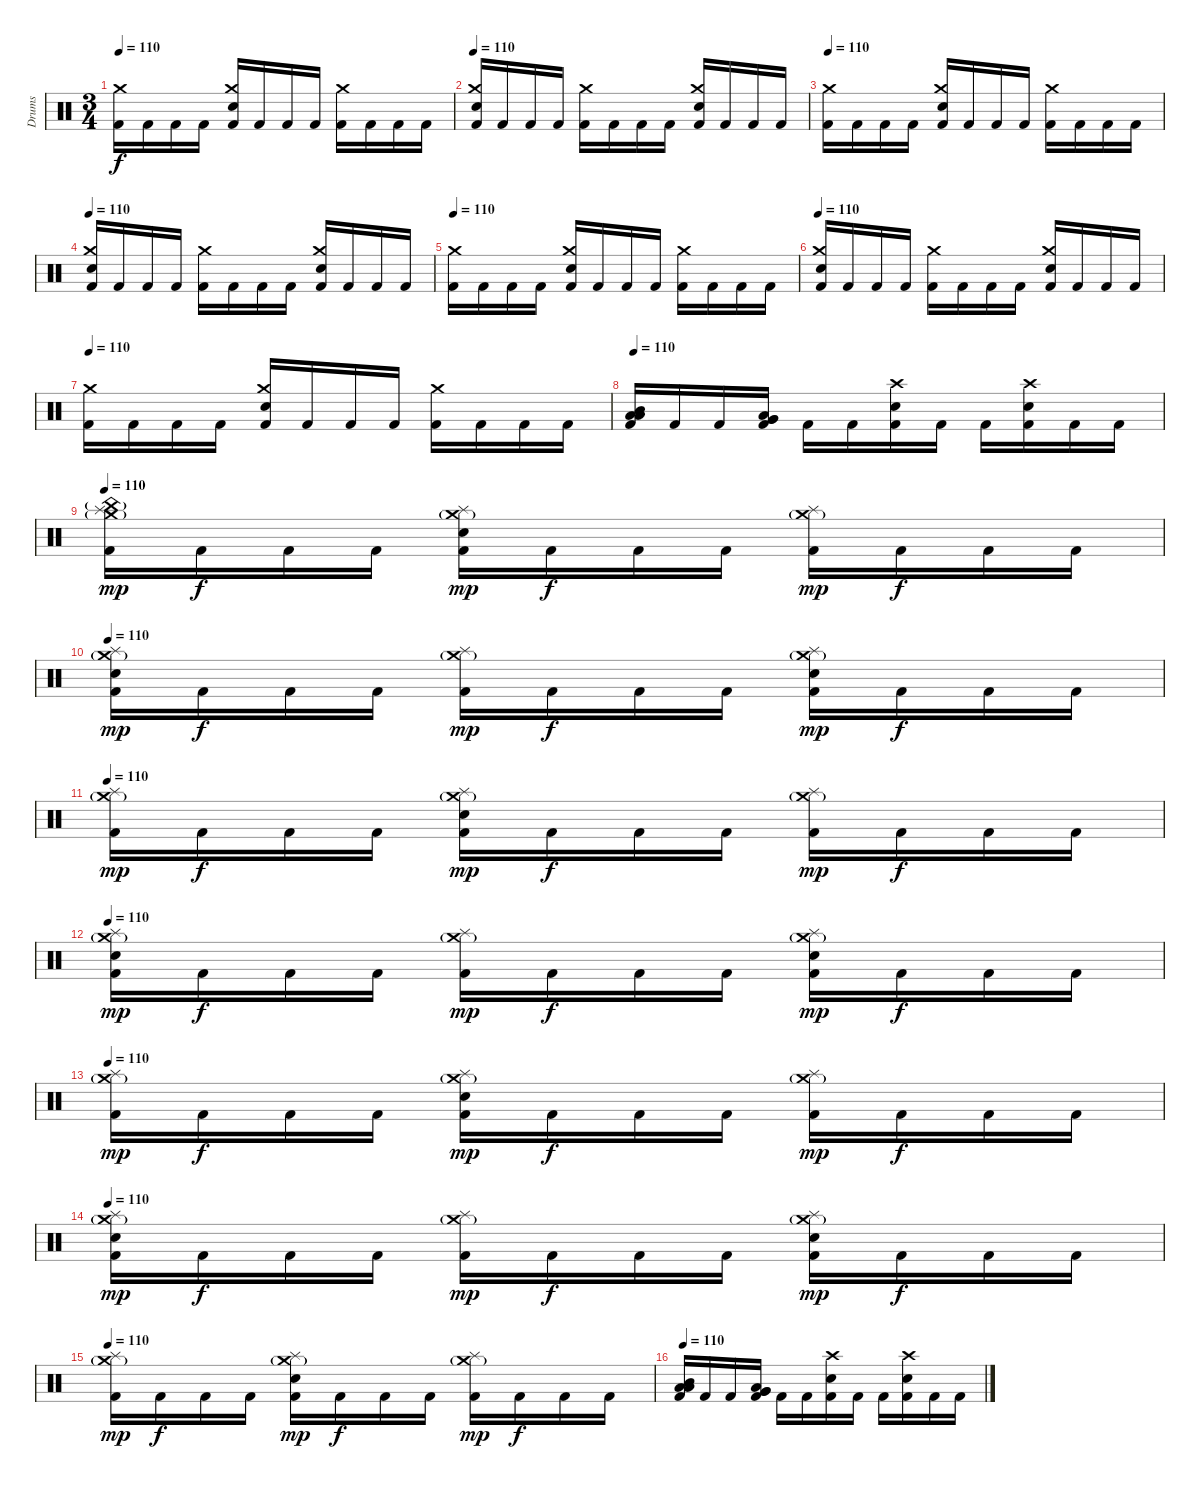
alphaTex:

\track ("Drums" "Drums") {instrument percussion}
\staff {score}
\articulation defaults
\ts (3 4)
\tempo 110
\clef neutral
\ks c
("Kick (hit) 2" "Crash medium (hit)").16{dy f} "Kick (hit) 2".16 "Kick (hit) 2".16 "Kick (hit) 2".16 ("Kick (hit) 2" "Electric Snare (hit)" "Crash medium (hit)").16 "Kick (hit) 2".16 "Kick (hit) 2".16 "Kick (hit) 2".16 ("Kick (hit) 2" "Crash medium (hit)").16 "Kick (hit) 2".16 "Kick (hit) 2".16 "Kick (hit) 2".16 |
\tempo 110
("Kick (hit) 2" "Electric Snare (hit)" "Crash medium (hit)").16 "Kick (hit) 2".16 "Kick (hit) 2".16 "Kick (hit) 2".16 ("Kick (hit) 2" "Crash medium (hit)").16 "Kick (hit) 2".16 "Kick (hit) 2".16 "Kick (hit) 2".16 ("Kick (hit) 2" "Electric Snare (hit)" "Crash medium (hit)").16 "Kick (hit) 2".16 "Kick (hit) 2".16 "Kick (hit) 2".16 |
\tempo 110
("Kick (hit) 2" "Crash medium (hit)").16 "Kick (hit) 2".16 "Kick (hit) 2".16 "Kick (hit) 2".16 ("Kick (hit) 2" "Electric Snare (hit)" "Crash medium (hit)").16 "Kick (hit) 2".16 "Kick (hit) 2".16 "Kick (hit) 2".16 ("Kick (hit) 2" "Crash medium (hit)").16 "Kick (hit) 2".16 "Kick (hit) 2".16 "Kick (hit) 2".16 |
\tempo 110
("Kick (hit) 2" "Electric Snare (hit)" "Crash medium (hit)").16 "Kick (hit) 2".16 "Kick (hit) 2".16 "Kick (hit) 2".16 ("Kick (hit) 2" "Crash medium (hit)").16 "Kick (hit) 2".16 "Kick (hit) 2".16 "Kick (hit) 2".16 ("Kick (hit) 2" "Electric Snare (hit)" "Crash medium (hit)").16 "Kick (hit) 2".16 "Kick (hit) 2".16 "Kick (hit) 2".16 |
\tempo 110
("Kick (hit) 2" "Crash medium (hit)").16 "Kick (hit) 2".16 "Kick (hit) 2".16 "Kick (hit) 2".16 ("Kick (hit) 2" "Electric Snare (hit)" "Crash medium (hit)").16 "Kick (hit) 2".16 "Kick (hit) 2".16 "Kick (hit) 2".16 ("Kick (hit) 2" "Crash medium (hit)").16 "Kick (hit) 2".16 "Kick (hit) 2".16 "Kick (hit) 2".16 |
\tempo 110
("Kick (hit) 2" "Electric Snare (hit)" "Crash medium (hit)").16 "Kick (hit) 2".16 "Kick (hit) 2".16 "Kick (hit) 2".16 ("Kick (hit) 2" "Crash medium (hit)").16 "Kick (hit) 2".16 "Kick (hit) 2".16 "Kick (hit) 2".16 ("Kick (hit) 2" "Electric Snare (hit)" "Crash medium (hit)").16 "Kick (hit) 2".16 "Kick (hit) 2".16 "Kick (hit) 2".16 |
\tempo 110
("Kick (hit) 2" "Crash medium (hit)").16 "Kick (hit) 2".16 "Kick (hit) 2".16 "Kick (hit) 2".16 ("Kick (hit) 2" "Electric Snare (hit)" "Crash medium (hit)").16 "Kick (hit) 2".16 "Kick (hit) 2".16 "Kick (hit) 2".16 ("Kick (hit) 2" "Crash medium (hit)").16 "Kick (hit) 2".16 "Kick (hit) 2".16 "Kick (hit) 2".16 |
\tempo 110
("Kick (hit) 2" "Mid Tom (hit)" "Low Tom (hit)" "Low Tom (hit)").16 "Kick (hit) 2".16 "Kick (hit) 2".16 ("Kick (hit) 2" "Low Tom (hit)" "Very Low Tom (hit)" "Very Low Tom (hit)").16 "Kick (hit) 2".16 "Kick (hit) 2".16 ("Kick (hit) 2" "Electric Snare (hit)" "Crash high (hit)").16 "Kick (hit) 2".16 "Kick (hit) 2".16 ("Kick (hit) 2" "Electric Snare (hit)" "Crash high (hit)").16 "Kick (hit) 2".16 "Kick (hit) 2".16 |
\tempo 110
("Kick (hit) 2" "Splash (hit)" "Crash medium (hit)"{g} "China (hit)"{g}).16{dy mp} "Kick (hit) 2".16{dy f} "Kick (hit) 2".16 "Kick (hit) 2".16 ("Kick (hit) 2" "Electric Snare (hit)" "Splash (hit)" "Crash medium (hit)"{g}).16{dy mp} "Kick (hit) 2".16{dy f} "Kick (hit) 2".16 "Kick (hit) 2".16 ("Kick (hit) 2" "Splash (hit)" "Crash medium (hit)"{g}).16{dy mp} "Kick (hit) 2".16{dy f} "Kick (hit) 2".16 "Kick (hit) 2".16 |
\tempo 110
("Kick (hit) 2" "Electric Snare (hit)" "Splash (hit)" "Crash medium (hit)"{g}).16{dy mp} "Kick (hit) 2".16{dy f} "Kick (hit) 2".16 "Kick (hit) 2".16 ("Kick (hit) 2" "Splash (hit)" "Crash medium (hit)"{g}).16{dy mp} "Kick (hit) 2".16{dy f} "Kick (hit) 2".16 "Kick (hit) 2".16 ("Kick (hit) 2" "Electric Snare (hit)" "Splash (hit)" "Crash medium (hit)"{g}).16{dy mp} "Kick (hit) 2".16{dy f} "Kick (hit) 2".16 "Kick (hit) 2".16 |
\tempo 110
("Kick (hit) 2" "Splash (hit)" "Crash medium (hit)"{g}).16{dy mp} "Kick (hit) 2".16{dy f} "Kick (hit) 2".16 "Kick (hit) 2".16 ("Kick (hit) 2" "Electric Snare (hit)" "Splash (hit)" "Crash medium (hit)"{g}).16{dy mp} "Kick (hit) 2".16{dy f} "Kick (hit) 2".16 "Kick (hit) 2".16 ("Kick (hit) 2" "Splash (hit)" "Crash medium (hit)"{g}).16{dy mp} "Kick (hit) 2".16{dy f} "Kick (hit) 2".16 "Kick (hit) 2".16 |
\tempo 110
("Kick (hit) 2" "Electric Snare (hit)" "Splash (hit)" "Crash medium (hit)"{g}).16{dy mp} "Kick (hit) 2".16{dy f} "Kick (hit) 2".16 "Kick (hit) 2".16 ("Kick (hit) 2" "Splash (hit)" "Crash medium (hit)"{g}).16{dy mp} "Kick (hit) 2".16{dy f} "Kick (hit) 2".16 "Kick (hit) 2".16 ("Kick (hit) 2" "Electric Snare (hit)" "Splash (hit)" "Crash medium (hit)"{g}).16{dy mp} "Kick (hit) 2".16{dy f} "Kick (hit) 2".16 "Kick (hit) 2".16 |
\tempo 110
("Kick (hit) 2" "Splash (hit)" "Crash medium (hit)"{g}).16{dy mp} "Kick (hit) 2".16{dy f} "Kick (hit) 2".16 "Kick (hit) 2".16 ("Kick (hit) 2" "Electric Snare (hit)" "Splash (hit)" "Crash medium (hit)"{g}).16{dy mp} "Kick (hit) 2".16{dy f} "Kick (hit) 2".16 "Kick (hit) 2".16 ("Kick (hit) 2" "Splash (hit)" "Crash medium (hit)"{g}).16{dy mp} "Kick (hit) 2".16{dy f} "Kick (hit) 2".16 "Kick (hit) 2".16 |
\tempo 110
("Kick (hit) 2" "Electric Snare (hit)" "Splash (hit)" "Crash medium (hit)"{g}).16{dy mp} "Kick (hit) 2".16{dy f} "Kick (hit) 2".16 "Kick (hit) 2".16 ("Kick (hit) 2" "Splash (hit)" "Crash medium (hit)"{g}).16{dy mp} "Kick (hit) 2".16{dy f} "Kick (hit) 2".16 "Kick (hit) 2".16 ("Kick (hit) 2" "Electric Snare (hit)" "Splash (hit)" "Crash medium (hit)"{g}).16{dy mp} "Kick (hit) 2".16{dy f} "Kick (hit) 2".16 "Kick (hit) 2".16 |
\tempo 110
("Kick (hit) 2" "Splash (hit)" "Crash medium (hit)"{g}).16{dy mp} "Kick (hit) 2".16{dy f} "Kick (hit) 2".16 "Kick (hit) 2".16 ("Kick (hit) 2" "Electric Snare (hit)" "Splash (hit)" "Crash medium (hit)"{g}).16{dy mp} "Kick (hit) 2".16{dy f} "Kick (hit) 2".16 "Kick (hit) 2".16 ("Kick (hit) 2" "Splash (hit)" "Crash medium (hit)"{g}).16{dy mp} "Kick (hit) 2".16{dy f} "Kick (hit) 2".16 "Kick (hit) 2".16 |
\tempo 110
("Kick (hit) 2" "Mid Tom (hit)" "Low Tom (hit)" "Low Tom (hit)").16 "Kick (hit) 2".16 "Kick (hit) 2".16 ("Kick (hit) 2" "Low Tom (hit)" "Very Low Tom (hit)" "Very Low Tom (hit)").16 "Kick (hit) 2".16 "Kick (hit) 2".16 ("Kick (hit) 2" "Electric Snare (hit)" "Crash high (hit)").16 "Kick (hit) 2".16 "Kick (hit) 2".16 ("Kick (hit) 2" "Electric Snare (hit)" "Crash high (hit)").16 "Kick (hit) 2".16 "Kick (hit) 2".16
